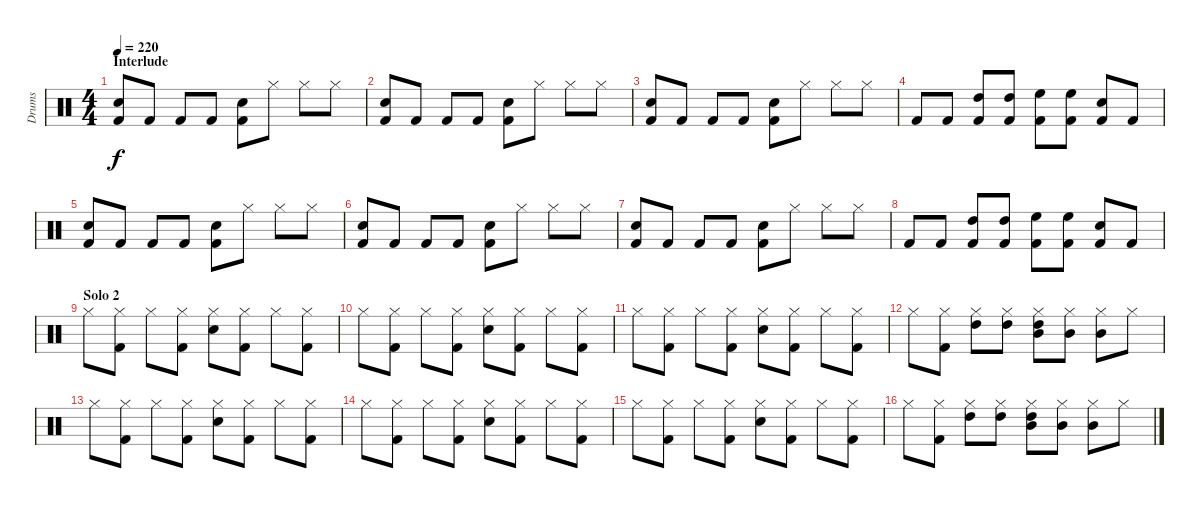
\track ("Drums" "Drums") {instrument percussion}
\staff {score}
\articulation defaults
\ts (4 4)
\section ("" "Interlude")
\tempo 220
\clef neutral
\ks c
("Kick (hit) 2" "Snare (hit) 2").8{dy f} "Kick (hit) 2".8 "Kick (hit) 2".8 "Kick (hit) 2".8 ("Kick (hit) 2" "Snare (hit) 2").8 "Hi-Hat (closed)".8 "Hi-Hat (closed)".8 "Hi-Hat (closed)".8 |
("Kick (hit) 2" "Snare (hit) 2").8 "Kick (hit) 2".8 "Kick (hit) 2".8 "Kick (hit) 2".8 ("Kick (hit) 2" "Snare (hit) 2").8 "Hi-Hat (closed)".8 "Hi-Hat (closed)".8 "Hi-Hat (closed)".8 |
("Kick (hit) 2" "Snare (hit) 2").8 "Kick (hit) 2".8 "Kick (hit) 2".8 "Kick (hit) 2".8 ("Kick (hit) 2" "Snare (hit) 2").8 "Hi-Hat (closed)".8 "Hi-Hat (closed)".8 "Hi-Hat (closed)".8 |
"Kick (hit) 2".8 "Kick (hit) 2".8 ("High Tom (hit)" "Kick (hit) 2").8 ("High Tom (hit)" "Kick (hit) 2").8 ("High Floor Tom (hit)" "Kick (hit) 2").8 ("High Floor Tom (hit)" "Kick (hit) 2").8 ("Snare (hit) 2" "Kick (hit) 2").8 "Kick (hit) 2".8 |
("Kick (hit) 2" "Snare (hit) 2").8 "Kick (hit) 2".8 "Kick (hit) 2".8 "Kick (hit) 2".8 ("Kick (hit) 2" "Snare (hit) 2").8 "Hi-Hat (closed)".8 "Hi-Hat (closed)".8 "Hi-Hat (closed)".8 |
("Kick (hit) 2" "Snare (hit) 2").8 "Kick (hit) 2".8 "Kick (hit) 2".8 "Kick (hit) 2".8 ("Kick (hit) 2" "Snare (hit) 2").8 "Hi-Hat (closed)".8 "Hi-Hat (closed)".8 "Hi-Hat (closed)".8 |
("Kick (hit) 2" "Snare (hit) 2").8 "Kick (hit) 2".8 "Kick (hit) 2".8 "Kick (hit) 2".8 ("Kick (hit) 2" "Snare (hit) 2").8 "Hi-Hat (closed)".8 "Hi-Hat (closed)".8 "Hi-Hat (closed)".8 |
"Kick (hit) 2".8 "Kick (hit) 2".8 ("High Tom (hit)" "Kick (hit) 2").8 ("High Tom (hit)" "Kick (hit) 2").8 ("High Floor Tom (hit)" "Kick (hit) 2").8 ("High Floor Tom (hit)" "Kick (hit) 2").8 ("Snare (hit) 2" "Kick (hit) 2").8 "Kick (hit) 2".8 |
\section ("" "Solo 2")
"Hi-Hat (closed)".8 ("Hi-Hat (closed)" "Kick (hit) 2").8 "Hi-Hat (closed)".8 ("Hi-Hat (closed)" "Kick (hit) 2").8 ("Hi-Hat (closed)" "Snare (hit) 2").8 ("Hi-Hat (closed)" "Kick (hit) 2").8 "Hi-Hat (closed)".8 ("Hi-Hat (closed)" "Kick (hit) 2").8 |
"Hi-Hat (closed)".8 ("Hi-Hat (closed)" "Kick (hit) 2").8 "Hi-Hat (closed)".8 ("Hi-Hat (closed)" "Kick (hit) 2").8 ("Hi-Hat (closed)" "Snare (hit) 2").8 ("Hi-Hat (closed)" "Kick (hit) 2").8 "Hi-Hat (closed)".8 ("Hi-Hat (closed)" "Kick (hit) 2").8 |
"Hi-Hat (closed)".8 ("Hi-Hat (closed)" "Kick (hit) 2").8 "Hi-Hat (closed)".8 ("Hi-Hat (closed)" "Kick (hit) 2").8 ("Hi-Hat (closed)" "Snare (hit) 2").8 ("Hi-Hat (closed)" "Kick (hit) 2").8 "Hi-Hat (closed)".8 ("Hi-Hat (closed)" "Kick (hit) 2").8 |
"Hi-Hat (closed)".8 ("Hi-Hat (closed)" "Kick (hit) 2").8 ("Hi-Hat (closed)" "High Tom (hit)").8 ("Hi-Hat (closed)" "High Tom (hit)").8 ("Hi-Hat (closed)" "High Tom (hit)" "Mid Tom (hit)").8 ("Hi-Hat (closed)" "Mid Tom (hit)").8 ("Hi-Hat (closed)" "Mid Tom (hit)").8 "Hi-Hat (closed)".8 |
"Hi-Hat (closed)".8 ("Hi-Hat (closed)" "Kick (hit) 2").8 "Hi-Hat (closed)".8 ("Hi-Hat (closed)" "Kick (hit) 2").8 ("Hi-Hat (closed)" "Snare (hit) 2").8 ("Hi-Hat (closed)" "Kick (hit) 2").8 "Hi-Hat (closed)".8 ("Hi-Hat (closed)" "Kick (hit) 2").8 |
"Hi-Hat (closed)".8 ("Hi-Hat (closed)" "Kick (hit) 2").8 "Hi-Hat (closed)".8 ("Hi-Hat (closed)" "Kick (hit) 2").8 ("Hi-Hat (closed)" "Snare (hit) 2").8 ("Hi-Hat (closed)" "Kick (hit) 2").8 "Hi-Hat (closed)".8 ("Hi-Hat (closed)" "Kick (hit) 2").8 |
"Hi-Hat (closed)".8 ("Hi-Hat (closed)" "Kick (hit) 2").8 "Hi-Hat (closed)".8 ("Hi-Hat (closed)" "Kick (hit) 2").8 ("Hi-Hat (closed)" "Snare (hit) 2").8 ("Hi-Hat (closed)" "Kick (hit) 2").8 "Hi-Hat (closed)".8 ("Hi-Hat (closed)" "Kick (hit) 2").8 |
"Hi-Hat (closed)".8 ("Hi-Hat (closed)" "Kick (hit) 2").8 ("Hi-Hat (closed)" "High Tom (hit)").8 ("Hi-Hat (closed)" "High Tom (hit)").8 ("Hi-Hat (closed)" "High Tom (hit)" "Mid Tom (hit)").8 ("Hi-Hat (closed)" "Mid Tom (hit)").8 ("Hi-Hat (closed)" "Mid Tom (hit)").8 "Hi-Hat (closed)".8
